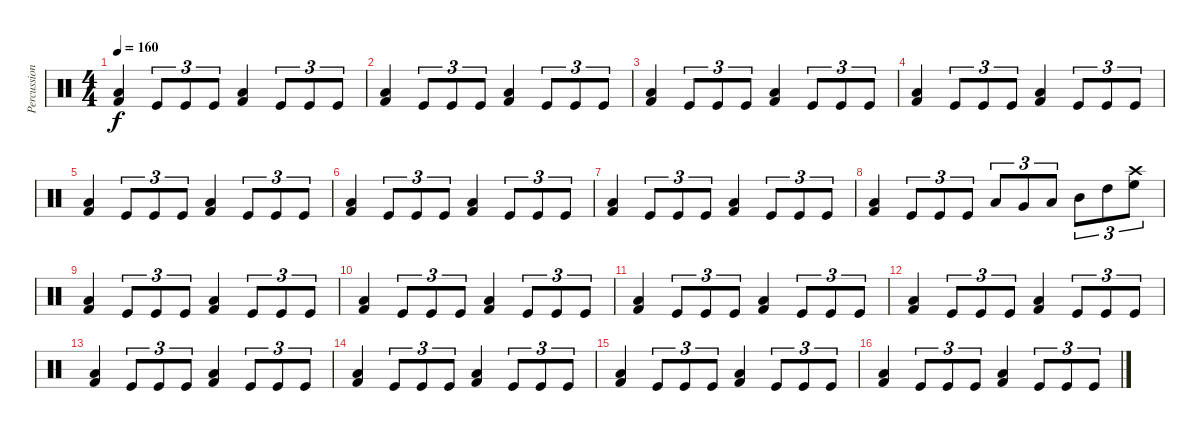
\track ("Percussions" "Percussion") {instrument percussion}
\staff {score}
\articulation defaults
\ts (4 4)
\tempo 160
\clef neutral
\ks c
("Kick (hit) 2" "Low Floor Tom (hit)").4{dy f} "Kick (hit)".8{tu (3 2)} "Kick (hit)".8{tu (3 2)} "Kick (hit)".8{tu (3 2)} ("Kick (hit) 2" "Low Floor Tom (hit)").4 "Kick (hit)".8{tu (3 2)} "Kick (hit)".8{tu (3 2)} "Kick (hit)".8{tu (3 2)} |
("Kick (hit) 2" "Low Floor Tom (hit)").4 "Kick (hit)".8{tu (3 2)} "Kick (hit)".8{tu (3 2)} "Kick (hit)".8{tu (3 2)} ("Kick (hit) 2" "Low Floor Tom (hit)").4 "Kick (hit)".8{tu (3 2)} "Kick (hit)".8{tu (3 2)} "Kick (hit)".8{tu (3 2)} |
("Kick (hit) 2" "Low Floor Tom (hit)").4 "Kick (hit)".8{tu (3 2)} "Kick (hit)".8{tu (3 2)} "Kick (hit)".8{tu (3 2)} ("Kick (hit) 2" "Low Floor Tom (hit)").4 "Kick (hit)".8{tu (3 2)} "Kick (hit)".8{tu (3 2)} "Kick (hit)".8{tu (3 2)} |
("Kick (hit) 2" "Low Floor Tom (hit)").4 "Kick (hit)".8{tu (3 2)} "Kick (hit)".8{tu (3 2)} "Kick (hit)".8{tu (3 2)} ("Kick (hit) 2" "Low Floor Tom (hit)").4 "Kick (hit)".8{tu (3 2)} "Kick (hit)".8{tu (3 2)} "Kick (hit)".8{tu (3 2)} |
("Kick (hit) 2" "Low Floor Tom (hit)").4 "Kick (hit)".8{tu (3 2)} "Kick (hit)".8{tu (3 2)} "Kick (hit)".8{tu (3 2)} ("Kick (hit) 2" "Low Floor Tom (hit)").4 "Kick (hit)".8{tu (3 2)} "Kick (hit)".8{tu (3 2)} "Kick (hit)".8{tu (3 2)} |
("Kick (hit) 2" "Low Floor Tom (hit)").4 "Kick (hit)".8{tu (3 2)} "Kick (hit)".8{tu (3 2)} "Kick (hit)".8{tu (3 2)} ("Kick (hit) 2" "Low Floor Tom (hit)").4 "Kick (hit)".8{tu (3 2)} "Kick (hit)".8{tu (3 2)} "Kick (hit)".8{tu (3 2)} |
("Kick (hit) 2" "Low Floor Tom (hit)").4 "Kick (hit)".8{tu (3 2)} "Kick (hit)".8{tu (3 2)} "Kick (hit)".8{tu (3 2)} ("Kick (hit) 2" "Low Floor Tom (hit)").4 "Kick (hit)".8{tu (3 2)} "Kick (hit)".8{tu (3 2)} "Kick (hit)".8{tu (3 2)} |
("Kick (hit) 2" "Low Floor Tom (hit)").4 "Kick (hit)".8{tu (3 2)} "Kick (hit)".8{tu (3 2)} "Kick (hit)".8{tu (3 2)} "Low Floor Tom (hit)".8{tu (3 2)} "Very Low Tom (hit)".8{tu (3 2)} "Low Tom (hit)".8{tu (3 2)} "Mid Tom (hit)".8{tu (3 2)} "High Tom (hit)".8{tu (3 2)} ("High Floor Tom (hit)" "Crash high (hit)").8{tu (3 2)} |
("Kick (hit) 2" "Low Floor Tom (hit)").4 "Kick (hit)".8{tu (3 2)} "Kick (hit)".8{tu (3 2)} "Kick (hit)".8{tu (3 2)} ("Kick (hit) 2" "Low Floor Tom (hit)").4 "Kick (hit)".8{tu (3 2)} "Kick (hit)".8{tu (3 2)} "Kick (hit)".8{tu (3 2)} |
("Kick (hit) 2" "Low Floor Tom (hit)").4 "Kick (hit)".8{tu (3 2)} "Kick (hit)".8{tu (3 2)} "Kick (hit)".8{tu (3 2)} ("Kick (hit) 2" "Low Floor Tom (hit)").4 "Kick (hit)".8{tu (3 2)} "Kick (hit)".8{tu (3 2)} "Kick (hit)".8{tu (3 2)} |
("Kick (hit) 2" "Low Floor Tom (hit)").4 "Kick (hit)".8{tu (3 2)} "Kick (hit)".8{tu (3 2)} "Kick (hit)".8{tu (3 2)} ("Kick (hit) 2" "Low Floor Tom (hit)").4 "Kick (hit)".8{tu (3 2)} "Kick (hit)".8{tu (3 2)} "Kick (hit)".8{tu (3 2)} |
("Kick (hit) 2" "Low Floor Tom (hit)").4 "Kick (hit)".8{tu (3 2)} "Kick (hit)".8{tu (3 2)} "Kick (hit)".8{tu (3 2)} ("Kick (hit) 2" "Low Floor Tom (hit)").4 "Kick (hit)".8{tu (3 2)} "Kick (hit)".8{tu (3 2)} "Kick (hit)".8{tu (3 2)} |
("Kick (hit) 2" "Low Floor Tom (hit)").4 "Kick (hit)".8{tu (3 2)} "Kick (hit)".8{tu (3 2)} "Kick (hit)".8{tu (3 2)} ("Kick (hit) 2" "Low Floor Tom (hit)").4 "Kick (hit)".8{tu (3 2)} "Kick (hit)".8{tu (3 2)} "Kick (hit)".8{tu (3 2)} |
("Kick (hit) 2" "Low Floor Tom (hit)").4 "Kick (hit)".8{tu (3 2)} "Kick (hit)".8{tu (3 2)} "Kick (hit)".8{tu (3 2)} ("Kick (hit) 2" "Low Floor Tom (hit)").4 "Kick (hit)".8{tu (3 2)} "Kick (hit)".8{tu (3 2)} "Kick (hit)".8{tu (3 2)} |
("Kick (hit) 2" "Low Floor Tom (hit)").4 "Kick (hit)".8{tu (3 2)} "Kick (hit)".8{tu (3 2)} "Kick (hit)".8{tu (3 2)} ("Kick (hit) 2" "Low Floor Tom (hit)").4 "Kick (hit)".8{tu (3 2)} "Kick (hit)".8{tu (3 2)} "Kick (hit)".8{tu (3 2)} |
("Kick (hit) 2" "Low Floor Tom (hit)").4 "Kick (hit)".8{tu (3 2)} "Kick (hit)".8{tu (3 2)} "Kick (hit)".8{tu (3 2)} ("Kick (hit) 2" "Low Floor Tom (hit)").4 "Kick (hit)".8{tu (3 2)} "Kick (hit)".8{tu (3 2)} "Kick (hit)".8{tu (3 2)}
